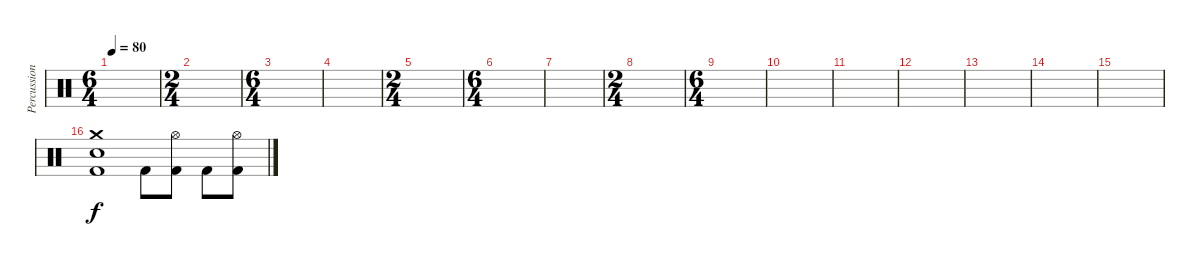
\track ("Percussion" "Percussion") {instrument percussion}
\staff {score}
\articulation defaults
\ts (6 4)
\tempo 80
\clef neutral
\ks c
|
\ts (2 4)
|
\ts (6 4)
|
|
\ts (2 4)
|
\ts (6 4)
|
|
\ts (2 4)
|
\ts (6 4)
|
|
|
|
|
|
|
("Crash medium (hit)" "Electric Snare (hit)" "Kick (hit) 2").1 "Kick (hit) 2".8 ("Hi-Hat (open)" "Kick (hit) 2").8 "Kick (hit) 2".8 ("Hi-Hat (open)" "Kick (hit) 2").8
